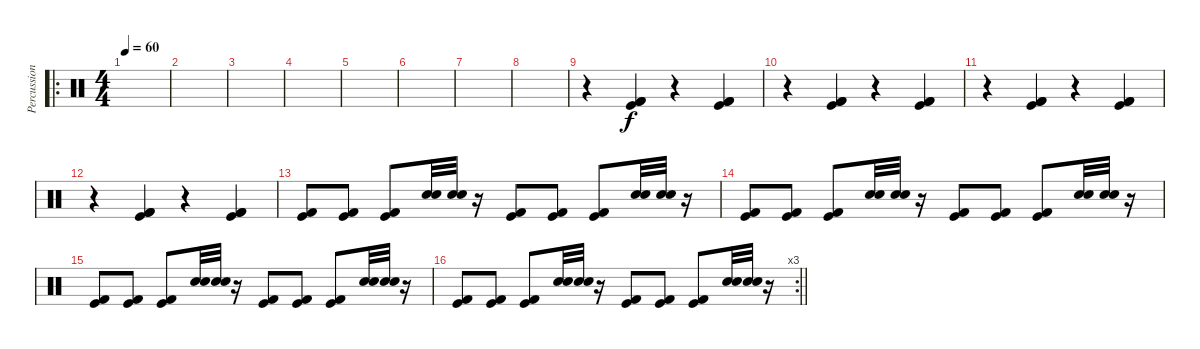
\track ("Percussion" "Percussion") {instrument percussion}
\staff {score}
\articulation defaults
\ro
\ts (4 4)
\tempo 60
\clef neutral
\ks c
|
|
|
|
|
|
|
|
r.4 ("Kick (hit) 2" "Kick (hit)" "Kick (hit) 2").4 r.4 ("Kick (hit) 2" "Kick (hit)" "Kick (hit) 2").4 |
r.4 ("Kick (hit) 2" "Kick (hit)" "Kick (hit) 2").4 r.4 ("Kick (hit) 2" "Kick (hit)" "Kick (hit) 2").4 |
r.4 ("Kick (hit) 2" "Kick (hit)" "Kick (hit) 2").4 r.4 ("Kick (hit) 2" "Kick (hit)" "Kick (hit) 2").4 |
r.4 ("Kick (hit) 2" "Kick (hit)" "Kick (hit) 2").4 r.4 ("Kick (hit) 2" "Kick (hit)" "Kick (hit) 2").4 |
("Kick (hit) 2" "Kick (hit)").8 ("Kick (hit) 2" "Kick (hit)").8 ("Kick (hit) 2" "Kick (hit)").8 ("Snare (hit) 2" "Electric Snare (hit)").32 ("Snare (hit) 2" "Electric Snare (hit)").32 r.16 ("Kick (hit) 2" "Kick (hit)").8 ("Kick (hit) 2" "Kick (hit)").8 ("Kick (hit) 2" "Kick (hit)").8 ("Snare (hit) 2" "Electric Snare (hit)").32 ("Snare (hit) 2" "Electric Snare (hit)").32 r.16 |
("Kick (hit) 2" "Kick (hit)").8 ("Kick (hit) 2" "Kick (hit)").8 ("Kick (hit) 2" "Kick (hit)").8 ("Snare (hit) 2" "Electric Snare (hit)").32 ("Snare (hit) 2" "Electric Snare (hit)").32 r.16 ("Kick (hit) 2" "Kick (hit)").8 ("Kick (hit) 2" "Kick (hit)").8 ("Kick (hit) 2" "Kick (hit)").8 ("Snare (hit) 2" "Electric Snare (hit)").32 ("Snare (hit) 2" "Electric Snare (hit)").32 r.16 |
("Kick (hit) 2" "Kick (hit)").8 ("Kick (hit) 2" "Kick (hit)").8 ("Kick (hit) 2" "Kick (hit)").8 ("Snare (hit) 2" "Electric Snare (hit)").32 ("Snare (hit) 2" "Electric Snare (hit)").32 r.16 ("Kick (hit) 2" "Kick (hit)").8 ("Kick (hit) 2" "Kick (hit)").8 ("Kick (hit) 2" "Kick (hit)").8 ("Snare (hit) 2" "Electric Snare (hit)").32 ("Snare (hit) 2" "Electric Snare (hit)").32 r.16 |
\rc 3
\barLineRight lightlight
("Kick (hit) 2" "Kick (hit)").8 ("Kick (hit) 2" "Kick (hit)").8 ("Kick (hit) 2" "Kick (hit)").8 ("Snare (hit) 2" "Electric Snare (hit)").32 ("Snare (hit) 2" "Electric Snare (hit)").32 r.16 ("Kick (hit) 2" "Kick (hit)").8 ("Kick (hit) 2" "Kick (hit)").8 ("Kick (hit) 2" "Kick (hit)").8 ("Snare (hit) 2" "Electric Snare (hit)").32 ("Snare (hit) 2" "Electric Snare (hit)").32 r.16
